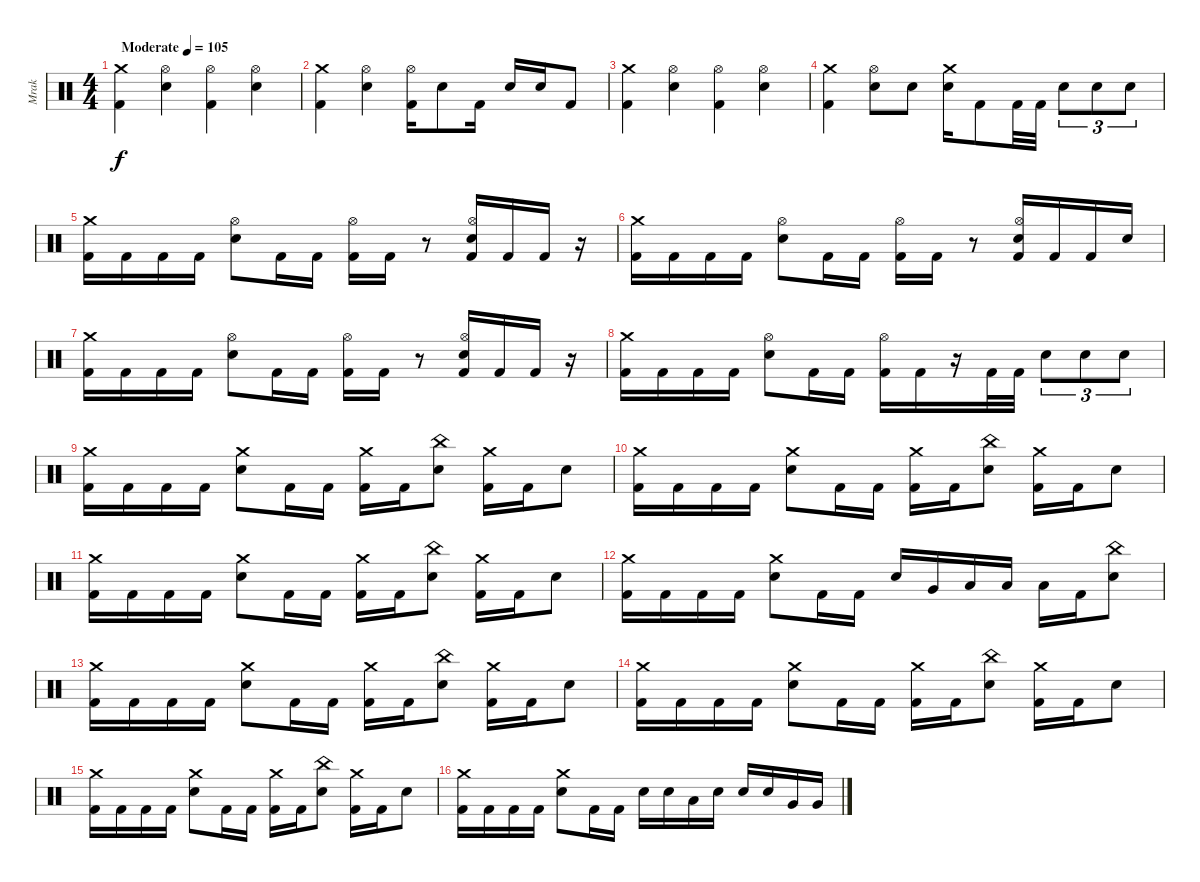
\track ("Mrak" "Mrak") {instrument percussion}
\staff {score}
\articulation defaults
\ts (4 4)
\tempo (105 "Moderate")
\clef neutral
\ks c
("Crash medium (hit)" "Kick (hit) 2").4{dy f} ("Hi-Hat (open)" "Electric Snare (hit)").4 ("Hi-Hat (open)" "Kick (hit) 2").4 ("Hi-Hat (open)" "Electric Snare (hit)").4 |
("Crash medium (hit)" "Kick (hit) 2").4 ("Hi-Hat (open)" "Electric Snare (hit)").4 ("Hi-Hat (open)" "Kick (hit) 2").16 "Electric Snare (hit)".8 "Kick (hit) 2".16 "Electric Snare (hit)".16 "Electric Snare (hit)".16 "Kick (hit) 2".8 |
("Crash medium (hit)" "Kick (hit) 2").4 ("Hi-Hat (open)" "Electric Snare (hit)").4 ("Hi-Hat (open)" "Kick (hit) 2").4 ("Hi-Hat (open)" "Electric Snare (hit)").4 |
("Crash medium (hit)" "Kick (hit) 2").4 ("Hi-Hat (open)" "Electric Snare (hit)").8 "Electric Snare (hit)".8 ("Crash medium (hit)" "Electric Snare (hit)").16 "Kick (hit) 2".8 "Kick (hit) 2".32 "Kick (hit) 2".32 "Electric Snare (hit)".8{tu (3 2)} "Electric Snare (hit)".8{tu (3 2)} "Electric Snare (hit)".8{tu (3 2)} |
("Crash medium (hit)" "Kick (hit) 2").16 "Kick (hit) 2".16 "Kick (hit) 2".16 "Kick (hit) 2".16 ("Hi-Hat (open)" "Electric Snare (hit)").8 "Kick (hit) 2".16 "Kick (hit) 2".16 ("Hi-Hat (open)" "Kick (hit) 2").16 "Kick (hit) 2".16 r.8 ("Hi-Hat (open)" "Electric Snare (hit)" "Kick (hit) 2").16 "Kick (hit) 2".16 "Kick (hit) 2".16 r.16 |
("Crash medium (hit)" "Kick (hit) 2").16 "Kick (hit) 2".16 "Kick (hit) 2".16 "Kick (hit) 2".16 ("Hi-Hat (open)" "Electric Snare (hit)").8 "Kick (hit) 2".16 "Kick (hit) 2".16 ("Hi-Hat (open)" "Kick (hit) 2").16 "Kick (hit) 2".16 r.8 ("Hi-Hat (open)" "Electric Snare (hit)" "Kick (hit) 2").16 "Kick (hit) 2".16 "Kick (hit) 2".16 "Electric Snare (hit)".16 |
("Crash medium (hit)" "Kick (hit) 2").16 "Kick (hit) 2".16 "Kick (hit) 2".16 "Kick (hit) 2".16 ("Hi-Hat (open)" "Electric Snare (hit)").8 "Kick (hit) 2".16 "Kick (hit) 2".16 ("Hi-Hat (open)" "Kick (hit) 2").16 "Kick (hit) 2".16 r.8 ("Hi-Hat (open)" "Electric Snare (hit)" "Kick (hit) 2").16 "Kick (hit) 2".16 "Kick (hit) 2".16 r.16 |
("Crash medium (hit)" "Kick (hit) 2").16 "Kick (hit) 2".16 "Kick (hit) 2".16 "Kick (hit) 2".16 ("Hi-Hat (open)" "Electric Snare (hit)").8 "Kick (hit) 2".16 "Kick (hit) 2".16 ("Hi-Hat (open)" "Kick (hit) 2").16 "Kick (hit) 2".16 r.16 "Kick (hit) 2".32 "Kick (hit) 2".32 "Electric Snare (hit)".8{tu (3 2)} "Electric Snare (hit)".8{tu (3 2)} "Electric Snare (hit)".8{tu (3 2)} |
("Crash medium (hit)" "Kick (hit) 2").16 "Kick (hit) 2".16 "Kick (hit) 2".16 "Kick (hit) 2".16 ("Crash medium (hit)" "Electric Snare (hit)").8 "Kick (hit) 2".16 "Kick (hit) 2".16 ("Crash medium (hit)" "Kick (hit) 2").16 "Kick (hit) 2".16 ("China (hit)" "Electric Snare (hit)").8 ("Crash medium (hit)" "Kick (hit) 2").16 "Kick (hit) 2".16 "Electric Snare (hit)".8 |
("Crash medium (hit)" "Kick (hit) 2").16 "Kick (hit) 2".16 "Kick (hit) 2".16 "Kick (hit) 2".16 ("Crash medium (hit)" "Electric Snare (hit)").8 "Kick (hit) 2".16 "Kick (hit) 2".16 ("Crash medium (hit)" "Kick (hit) 2").16 "Kick (hit) 2".16 ("China (hit)" "Electric Snare (hit)").8 ("Crash medium (hit)" "Kick (hit) 2").16 "Kick (hit) 2".16 "Electric Snare (hit)".8 |
("Crash medium (hit)" "Kick (hit) 2").16 "Kick (hit) 2".16 "Kick (hit) 2".16 "Kick (hit) 2".16 ("Crash medium (hit)" "Electric Snare (hit)").8 "Kick (hit) 2".16 "Kick (hit) 2".16 ("Crash medium (hit)" "Kick (hit) 2").16 "Kick (hit) 2".16 ("China (hit)" "Electric Snare (hit)").8 ("Crash medium (hit)" "Kick (hit) 2").16 "Kick (hit) 2".16 "Electric Snare (hit)".8 |
("Crash medium (hit)" "Kick (hit) 2").16 "Kick (hit) 2".16 "Kick (hit) 2".16 "Kick (hit) 2".16 ("Crash medium (hit)" "Electric Snare (hit)").8 "Kick (hit) 2".16 "Kick (hit) 2".16 "Electric Snare (hit)".16 "Very Low Tom (hit)".16 "Low Tom (hit)".16 "Low Floor Tom (hit)".16 "Low Tom (hit)".16 "Kick (hit) 2".16 ("China (hit)" "Electric Snare (hit)").8 |
("Crash medium (hit)" "Kick (hit) 2").16 "Kick (hit) 2".16 "Kick (hit) 2".16 "Kick (hit) 2".16 ("Crash medium (hit)" "Electric Snare (hit)").8 "Kick (hit) 2".16 "Kick (hit) 2".16 ("Crash medium (hit)" "Kick (hit) 2").16 "Kick (hit) 2".16 ("China (hit)" "Electric Snare (hit)").8 ("Crash medium (hit)" "Kick (hit) 2").16 "Kick (hit) 2".16 "Electric Snare (hit)".8 |
("Crash medium (hit)" "Kick (hit) 2").16 "Kick (hit) 2".16 "Kick (hit) 2".16 "Kick (hit) 2".16 ("Crash medium (hit)" "Electric Snare (hit)").8 "Kick (hit) 2".16 "Kick (hit) 2".16 ("Crash medium (hit)" "Kick (hit) 2").16 "Kick (hit) 2".16 ("China (hit)" "Electric Snare (hit)").8 ("Crash medium (hit)" "Kick (hit) 2").16 "Kick (hit) 2".16 "Electric Snare (hit)".8 |
("Crash medium (hit)" "Kick (hit) 2").16 "Kick (hit) 2".16 "Kick (hit) 2".16 "Kick (hit) 2".16 ("Crash medium (hit)" "Electric Snare (hit)").8 "Kick (hit) 2".16 "Kick (hit) 2".16 ("Crash medium (hit)" "Kick (hit) 2").16 "Kick (hit) 2".16 ("China (hit)" "Electric Snare (hit)").8 ("Crash medium (hit)" "Kick (hit) 2").16 "Kick (hit) 2".16 "Electric Snare (hit)".8 |
("Crash medium (hit)" "Kick (hit) 2").16 "Kick (hit) 2".16 "Kick (hit) 2".16 "Kick (hit) 2".16 ("Crash medium (hit)" "Electric Snare (hit)").8 "Kick (hit) 2".16 "Kick (hit) 2".16 "Electric Snare (hit)".16 "Electric Snare (hit)".16 "Low Tom (hit)".16 "Electric Snare (hit)".16 "Electric Snare (hit)".16 "Electric Snare (hit)".16 "Very Low Tom (hit)".16 "Very Low Tom (hit)".16
